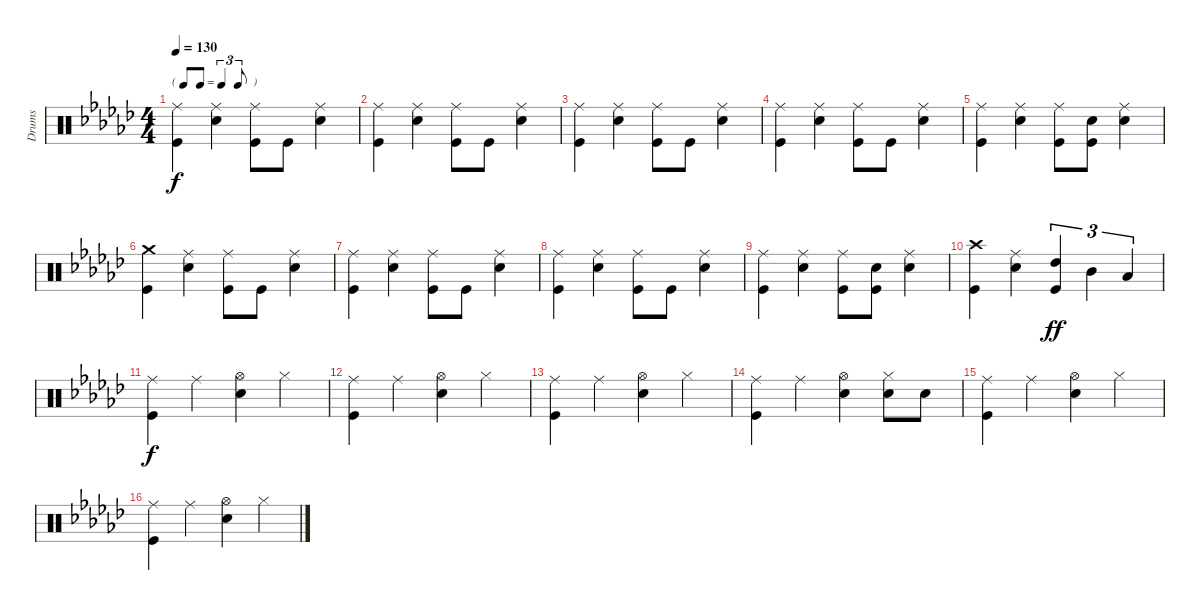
\track ("Drums" "Drums") {instrument percussion}
\staff {score}
\articulation defaults
\ts (4 4)
\tf triplet8th
\tempo 130
\clef neutral
\ks gb
("Ride (middle)" "Kick (hit)").4{dy f} ("Ride (middle)" "Snare (hit) 2").4 ("Ride (middle)" "Kick (hit)").8 "Kick (hit)".8 ("Ride (middle)" "Snare (hit) 2").4 |
("Ride (middle)" "Kick (hit)").4 ("Ride (middle)" "Snare (hit) 2").4 ("Ride (middle)" "Kick (hit)").8 "Kick (hit)".8 ("Ride (middle)" "Snare (hit) 2").4 |
("Ride (middle)" "Kick (hit)").4 ("Ride (middle)" "Snare (hit) 2").4 ("Ride (middle)" "Kick (hit)").8 "Kick (hit)".8 ("Ride (middle)" "Snare (hit) 2").4 |
("Ride (middle)" "Kick (hit)").4 ("Ride (middle)" "Snare (hit) 2").4 ("Ride (middle)" "Kick (hit)").8 "Kick (hit)".8 ("Ride (middle)" "Snare (hit) 2").4 |
("Ride (middle)" "Kick (hit)").4 ("Ride (middle)" "Snare (hit) 2").4 ("Ride (middle)" "Kick (hit)").8 ("Snare (hit) 2" "Kick (hit)").8 ("Ride (middle)" "Snare (hit) 2").4 |
("Crash medium (hit)" "Kick (hit)").4 ("Ride (middle)" "Snare (hit) 2").4 ("Ride (middle)" "Kick (hit)").8 "Kick (hit)".8 ("Ride (middle)" "Snare (hit) 2").4 |
("Ride (middle)" "Kick (hit)").4 ("Ride (middle)" "Snare (hit) 2").4 ("Ride (middle)" "Kick (hit)").8 "Kick (hit)".8 ("Ride (middle)" "Snare (hit) 2").4 |
("Ride (middle)" "Kick (hit)").4 ("Ride (middle)" "Snare (hit) 2").4 ("Ride (middle)" "Kick (hit)").8 "Kick (hit)".8 ("Ride (middle)" "Snare (hit) 2").4 |
("Ride (middle)" "Kick (hit)").4 ("Ride (middle)" "Snare (hit) 2").4 ("Ride (middle)" "Kick (hit)").8 ("Snare (hit) 2" "Kick (hit)").8 ("Ride (middle)" "Snare (hit) 2").4 |
("Crash high (hit)" "Kick (hit)").4 ("Ride (middle)" "Snare (hit) 2").4 ("High Tom (hit)" "Kick (hit)").4{tu (3 2) dy ff} "Mid Tom (hit)".4{tu (3 2)} "Low Tom (hit)".4{tu (3 2)} |
("Ride (middle)" "Kick (hit)").4{dy f} "Ride (middle)".4 ("Hi-Hat (open)" "Snare (hit) 2").4 "Hi-Hat (closed)".4 |
("Ride (middle)" "Kick (hit)").4 "Ride (middle)".4 ("Hi-Hat (open)" "Snare (hit) 2").4 "Hi-Hat (closed)".4 |
("Ride (middle)" "Kick (hit)").4 "Ride (middle)".4 ("Hi-Hat (open)" "Snare (hit) 2").4 "Hi-Hat (closed)".4 |
("Ride (middle)" "Kick (hit)").4 "Ride (middle)".4 ("Hi-Hat (open)" "Snare (hit) 2").4 ("Hi-Hat (closed)" "Snare (hit) 2").8 "Snare (hit) 2".8 |
("Ride (middle)" "Kick (hit)").4 "Ride (middle)".4 ("Hi-Hat (open)" "Snare (hit) 2").4 "Hi-Hat (closed)".4 |
("Ride (middle)" "Kick (hit)").4 "Ride (middle)".4 ("Hi-Hat (open)" "Snare (hit) 2").4 "Hi-Hat (closed)".4
